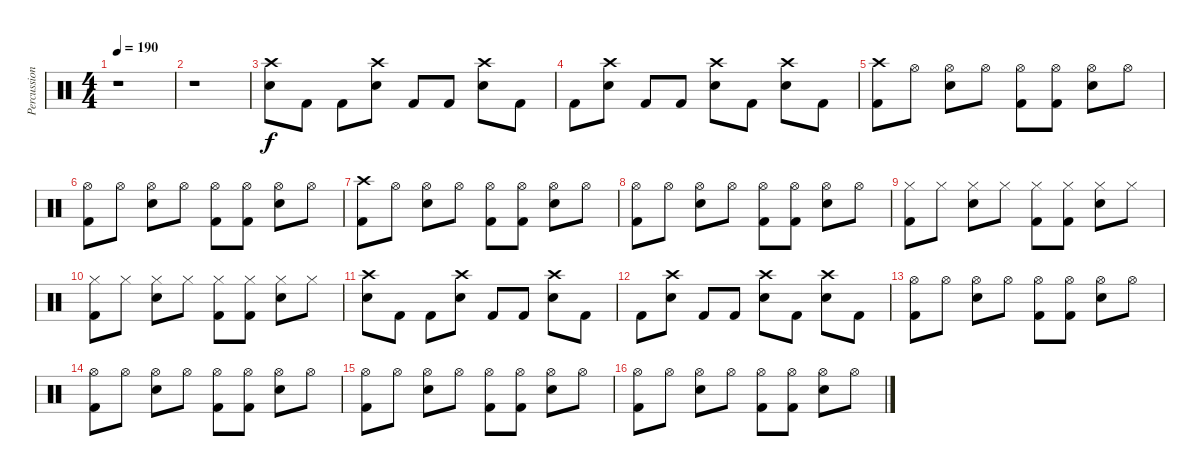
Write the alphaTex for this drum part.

\track ("Percussion" "Percussion") {instrument percussion}
\staff {score}
\articulation defaults
\ts (4 4)
\tempo 190
\clef neutral
\ks c
r.1{dy f} |
r.1 |
("Crash high (hit)" "Snare (hit) 2").8 "Kick (hit) 2".8 "Kick (hit) 2".8 ("Crash high (hit)" "Snare (hit) 2").8 "Kick (hit) 2".8 "Kick (hit) 2".8 ("Crash high (hit)" "Snare (hit) 2").8 "Kick (hit) 2".8 |
"Kick (hit) 2".8 ("Crash high (hit)" "Snare (hit) 2").8 "Kick (hit) 2".8 "Kick (hit) 2".8 ("Crash high (hit)" "Snare (hit) 2").8 "Kick (hit) 2".8 ("Crash high (hit)" "Snare (hit) 2").8 "Kick (hit) 2".8 |
("Crash high (hit)" "Kick (hit) 2").8 "Hi-Hat (open)".8 ("Hi-Hat (open)" "Snare (hit) 2").8 "Hi-Hat (open)".8 ("Hi-Hat (open)" "Kick (hit) 2").8 ("Hi-Hat (open)" "Kick (hit) 2").8 ("Hi-Hat (open)" "Snare (hit) 2").8 "Hi-Hat (open)".8 |
("Hi-Hat (open)" "Kick (hit) 2").8 "Hi-Hat (open)".8 ("Hi-Hat (open)" "Snare (hit) 2").8 "Hi-Hat (open)".8 ("Hi-Hat (open)" "Kick (hit) 2").8 ("Hi-Hat (open)" "Kick (hit) 2").8 ("Hi-Hat (open)" "Snare (hit) 2").8 "Hi-Hat (open)".8 |
("Crash high (hit)" "Kick (hit) 2").8 "Hi-Hat (open)".8 ("Hi-Hat (open)" "Snare (hit) 2").8 "Hi-Hat (open)".8 ("Hi-Hat (open)" "Kick (hit) 2").8 ("Hi-Hat (open)" "Kick (hit) 2").8 ("Hi-Hat (open)" "Snare (hit) 2").8 "Hi-Hat (open)".8 |
("Hi-Hat (open)" "Kick (hit) 2").8 "Hi-Hat (open)".8 ("Hi-Hat (open)" "Snare (hit) 2").8 "Hi-Hat (open)".8 ("Hi-Hat (open)" "Kick (hit) 2").8 ("Hi-Hat (open)" "Kick (hit) 2").8 ("Hi-Hat (open)" "Snare (hit) 2").8 "Hi-Hat (open)".8 |
("Hi-Hat (closed)" "Kick (hit) 2").8 "Hi-Hat (closed)".8 ("Hi-Hat (closed)" "Snare (hit) 2").8 "Hi-Hat (closed)".8 ("Hi-Hat (closed)" "Kick (hit) 2").8 ("Hi-Hat (closed)" "Kick (hit) 2").8 ("Hi-Hat (closed)" "Snare (hit) 2").8 "Hi-Hat (closed)".8 |
("Hi-Hat (closed)" "Kick (hit) 2").8 "Hi-Hat (closed)".8 ("Hi-Hat (closed)" "Snare (hit) 2").8 "Hi-Hat (closed)".8 ("Hi-Hat (closed)" "Kick (hit) 2").8 ("Hi-Hat (closed)" "Kick (hit) 2").8 ("Hi-Hat (closed)" "Snare (hit) 2").8 "Hi-Hat (closed)".8 |
("Crash high (hit)" "Snare (hit) 2").8 "Kick (hit) 2".8 "Kick (hit) 2".8 ("Crash high (hit)" "Snare (hit) 2").8 "Kick (hit) 2".8 "Kick (hit) 2".8 ("Crash high (hit)" "Snare (hit) 2").8 "Kick (hit) 2".8 |
"Kick (hit) 2".8 ("Crash high (hit)" "Snare (hit) 2").8 "Kick (hit) 2".8 "Kick (hit) 2".8 ("Crash high (hit)" "Snare (hit) 2").8 "Kick (hit) 2".8 ("Crash high (hit)" "Snare (hit) 2").8 "Kick (hit) 2".8 |
("Hi-Hat (open)" "Kick (hit) 2").8 "Hi-Hat (open)".8 ("Hi-Hat (open)" "Snare (hit) 2").8 "Hi-Hat (open)".8 ("Hi-Hat (open)" "Kick (hit) 2").8 ("Hi-Hat (open)" "Kick (hit) 2").8 ("Hi-Hat (open)" "Snare (hit) 2").8 "Hi-Hat (open)".8 |
("Hi-Hat (open)" "Kick (hit) 2").8 "Hi-Hat (open)".8 ("Hi-Hat (open)" "Snare (hit) 2").8 "Hi-Hat (open)".8 ("Hi-Hat (open)" "Kick (hit) 2").8 ("Hi-Hat (open)" "Kick (hit) 2").8 ("Hi-Hat (open)" "Snare (hit) 2").8 "Hi-Hat (open)".8 |
("Hi-Hat (open)" "Kick (hit) 2").8 "Hi-Hat (open)".8 ("Hi-Hat (open)" "Snare (hit) 2").8 "Hi-Hat (open)".8 ("Hi-Hat (open)" "Kick (hit) 2").8 ("Hi-Hat (open)" "Kick (hit) 2").8 ("Hi-Hat (open)" "Snare (hit) 2").8 "Hi-Hat (open)".8 |
("Hi-Hat (open)" "Kick (hit) 2").8 "Hi-Hat (open)".8 ("Hi-Hat (open)" "Snare (hit) 2").8 "Hi-Hat (open)".8 ("Hi-Hat (open)" "Kick (hit) 2").8 ("Hi-Hat (open)" "Kick (hit) 2").8 ("Hi-Hat (open)" "Snare (hit) 2").8 "Hi-Hat (open)".8
